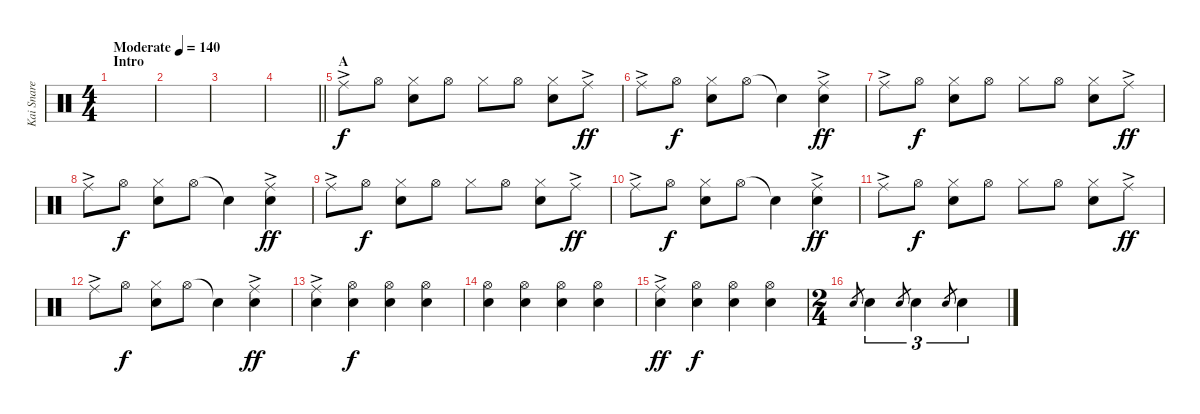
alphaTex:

\track ("Kai Snare" "Kai Snare") {instrument percussion}
\staff {score}
\articulation defaults
\ts (4 4)
\section ("" "Intro")
\tempo (140 "Moderate")
\clef neutral
\ks c
|
|
|
\barLineRight lightlight
|
\section ("" "A")
"Ride (middle)"{ac}.8 "Hi-Hat (open)".8{dy f} ("Hi-Hat (closed)" "Snare (hit) 2").8 "Hi-Hat (open)".8 "Hi-Hat (closed)".8 "Hi-Hat (open)".8 ("Hi-Hat (closed)" "Snare (hit) 2").8 "Ride (middle)"{ac}.8{dy ff} |
"Ride (middle)"{ac}.8 "Hi-Hat (open)".8{dy f} ("Hi-Hat (closed)" "Snare (hit) 2").8 "Hi-Hat (open)".8 "Snare (hit)"{t}.4 ("Ride (middle)"{ac} "Snare (hit) 2").4{dy ff} |
"Ride (middle)"{ac}.8 "Hi-Hat (open)".8{dy f} ("Hi-Hat (closed)" "Snare (hit) 2").8 "Hi-Hat (open)".8 "Hi-Hat (closed)".8 "Hi-Hat (open)".8 ("Hi-Hat (closed)" "Snare (hit) 2").8 "Ride (middle)"{ac}.8{dy ff} |
"Ride (middle)"{ac}.8 "Hi-Hat (open)".8{dy f} ("Hi-Hat (closed)" "Snare (hit) 2").8 "Hi-Hat (open)".8 "Snare (hit)"{t}.4 ("Ride (middle)"{ac} "Snare (hit) 2").4{dy ff} |
"Ride (middle)"{ac}.8 "Hi-Hat (open)".8{dy f} ("Hi-Hat (closed)" "Snare (hit) 2").8 "Hi-Hat (open)".8 "Hi-Hat (closed)".8 "Hi-Hat (open)".8 ("Hi-Hat (closed)" "Snare (hit) 2").8 "Ride (middle)"{ac}.8{dy ff} |
"Ride (middle)"{ac}.8 "Hi-Hat (open)".8{dy f} ("Hi-Hat (closed)" "Snare (hit) 2").8 "Hi-Hat (open)".8 "Snare (hit)"{t}.4 ("Ride (middle)"{ac} "Snare (hit) 2").4{dy ff} |
"Ride (middle)"{ac}.8 "Hi-Hat (open)".8{dy f} ("Hi-Hat (closed)" "Snare (hit) 2").8 "Hi-Hat (open)".8 "Hi-Hat (closed)".8 "Hi-Hat (open)".8 ("Hi-Hat (closed)" "Snare (hit) 2").8 "Ride (middle)"{ac}.8{dy ff} |
"Ride (middle)"{ac}.8 "Hi-Hat (open)".8{dy f} ("Hi-Hat (closed)" "Snare (hit) 2").8 "Hi-Hat (open)".8 "Snare (hit)"{t}.4 ("Ride (middle)"{ac} "Snare (hit) 2").4{dy ff} |
("Ride (middle)"{ac} "Snare (hit) 2").4 ("Hi-Hat (open)" "Snare (hit) 2").4{dy f} ("Hi-Hat (open)" "Snare (hit) 2").4 ("Hi-Hat (open)" "Snare (hit) 2").4 |
("Hi-Hat (open)" "Snare (hit) 2").4 ("Hi-Hat (open)" "Snare (hit) 2").4 ("Hi-Hat (open)" "Snare (hit) 2").4 ("Hi-Hat (open)" "Snare (hit) 2").4 |
("Ride (middle)"{ac} "Snare (hit) 2").4{dy ff} ("Hi-Hat (open)" "Snare (hit) 2").4{dy f} ("Hi-Hat (open)" "Snare (hit) 2").4 ("Hi-Hat (open)" "Snare (hit) 2").4 |
\ts (2 4)
"Snare (hit) 2".8{gr} "Snare (hit) 2".4{tu (3 2)} "Snare (hit) 2".8{gr} "Snare (hit) 2".4{tu (3 2)} "Snare (hit) 2".8{gr} "Snare (hit) 2".4{tu (3 2)}
